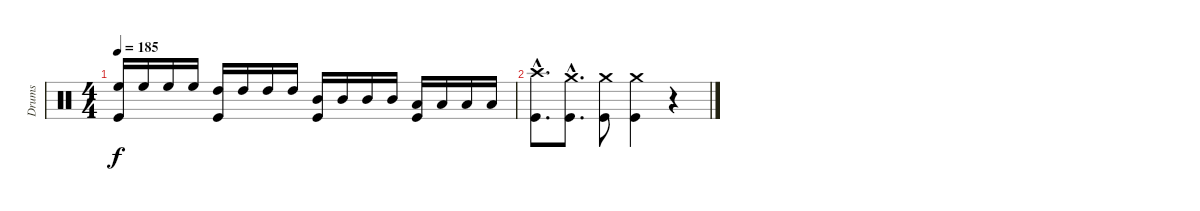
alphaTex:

\track ("Drums" "Drums") {instrument percussion}
\staff {score}
\articulation defaults
\ts (4 4)
\tempo 185
\clef neutral
\ks c
("High Floor Tom (hit)" "Kick (hit)").16{dy f} "High Floor Tom (hit)".16 "High Floor Tom (hit)".16 "High Floor Tom (hit)".16 ("High Tom (hit)" "Kick (hit)").16 "High Tom (hit)".16 "High Tom (hit)".16 "High Tom (hit)".16 ("Mid Tom (hit)" "Kick (hit)").16 "Mid Tom (hit)".16 "Mid Tom (hit)".16 "Mid Tom (hit)".16 ("Low Tom (hit)" "Kick (hit)").16 "Low Tom (hit)".16 "Low Tom (hit)".16 "Low Tom (hit)".16 |
("Crash high (hit)"{hac} "Kick (hit)"{hac}).8{d} ("Crash medium (hit)"{hac} "Kick (hit)"{hac}).8{d} ("Crash medium (hit)" "Kick (hit)").8 ("Crash medium (hit)" "Kick (hit)").4 r.4
